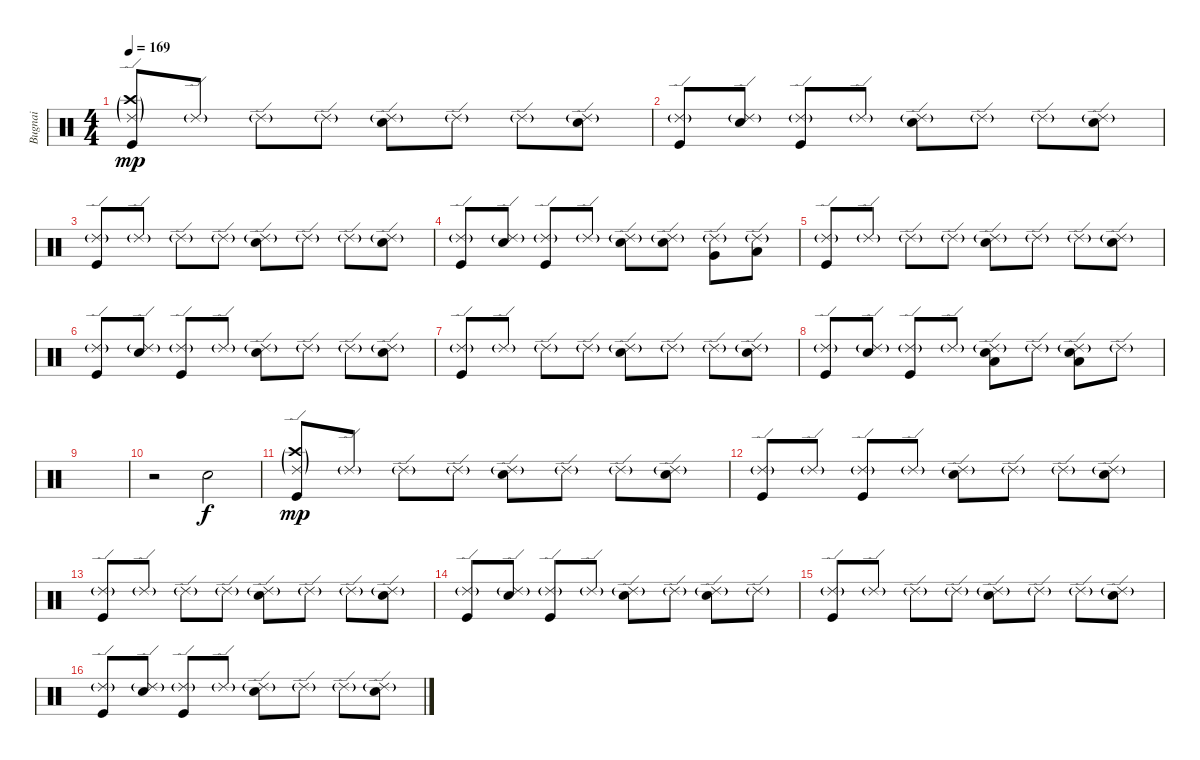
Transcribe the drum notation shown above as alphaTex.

\track ("Bugnai" "Bugnai") {instrument percussion}
\staff {score}
\articulation defaults
\ts (4 4)
\tempo 169
\clef neutral
\ks c
("Ride (edge) 2"{g} "Crash high (hit)"{g} "Kick (hit)").8{dy mp} "Ride (edge) 2"{g}.8 "Ride (edge) 2"{g}.8 "Ride (edge) 2"{g}.8 ("Ride (edge) 2"{g} "Snare (hit) 2").8 "Ride (edge) 2"{g}.8 "Ride (edge) 2"{g}.8 ("Ride (edge) 2"{g} "Snare (hit) 2").8 |
("Ride (edge) 2"{g} "Kick (hit)").8 ("Ride (edge) 2"{g} "Snare (hit) 2").8 ("Ride (edge) 2"{g} "Kick (hit)").8 "Ride (edge) 2"{g}.8 ("Ride (edge) 2"{g} "Snare (hit) 2").8 "Ride (edge) 2"{g}.8 "Ride (edge) 2"{g}.8 ("Ride (edge) 2"{g} "Snare (hit) 2").8 |
("Ride (edge) 2"{g} "Kick (hit)").8 "Ride (edge) 2"{g}.8 "Ride (edge) 2"{g}.8 "Ride (edge) 2"{g}.8 ("Ride (edge) 2"{g} "Snare (hit) 2").8 "Ride (edge) 2"{g}.8 "Ride (edge) 2"{g}.8 ("Ride (edge) 2"{g} "Snare (hit) 2").8 |
("Ride (edge) 2"{g} "Kick (hit)").8 ("Ride (edge) 2"{g} "Snare (hit) 2").8 ("Ride (edge) 2"{g} "Kick (hit)").8 "Ride (edge) 2"{g}.8 ("Ride (edge) 2"{g} "Snare (hit) 2").8 ("Ride (edge) 2"{g} "Snare (hit) 2").8 ("Ride (edge) 2"{g} "Very Low Tom (hit)").8 ("Ride (edge) 2"{g} "Low Floor Tom (hit)").8 |
("Ride (edge) 2"{g} "Kick (hit)").8 "Ride (edge) 2"{g}.8 "Ride (edge) 2"{g}.8 "Ride (edge) 2"{g}.8 ("Ride (edge) 2"{g} "Snare (hit) 2").8 "Ride (edge) 2"{g}.8 "Ride (edge) 2"{g}.8 ("Ride (edge) 2"{g} "Snare (hit) 2").8 |
("Ride (edge) 2"{g} "Kick (hit)").8 ("Ride (edge) 2"{g} "Snare (hit) 2").8 ("Ride (edge) 2"{g} "Kick (hit)").8 "Ride (edge) 2"{g}.8 ("Ride (edge) 2"{g} "Snare (hit) 2").8 "Ride (edge) 2"{g}.8 "Ride (edge) 2"{g}.8 ("Ride (edge) 2"{g} "Snare (hit) 2").8 |
("Ride (edge) 2"{g} "Kick (hit)").8 "Ride (edge) 2"{g}.8 "Ride (edge) 2"{g}.8 "Ride (edge) 2"{g}.8 ("Ride (edge) 2"{g} "Snare (hit) 2").8 "Ride (edge) 2"{g}.8 "Ride (edge) 2"{g}.8 ("Ride (edge) 2"{g} "Snare (hit) 2").8 |
("Ride (edge) 2"{g} "Kick (hit)").8 ("Ride (edge) 2"{g} "Snare (hit) 2").8 ("Ride (edge) 2"{g} "Kick (hit)").8 "Ride (edge) 2"{g}.8 ("Ride (edge) 2"{g} "Snare (hit) 2" "Low Tom (hit)").8 "Ride (edge) 2"{g}.8 ("Ride (edge) 2"{g} "Snare (hit) 2" "Low Tom (hit)").8 "Ride (edge) 2"{g}.8 |
|
r.2 "Snare (hit) 2".2{dy f} |
("Ride (edge) 2"{g} "Crash high (hit)"{g} "Kick (hit)").8{dy mp} "Ride (edge) 2"{g}.8 "Ride (edge) 2"{g}.8 "Ride (edge) 2"{g}.8 ("Ride (edge) 2"{g} "Snare (hit) 2").8 "Ride (edge) 2"{g}.8 "Ride (edge) 2"{g}.8 ("Ride (edge) 2"{g} "Snare (hit) 2").8 |
("Ride (edge) 2"{g} "Kick (hit)").8 "Ride (edge) 2"{g}.8 ("Ride (edge) 2"{g} "Kick (hit)").8 "Ride (edge) 2"{g}.8 ("Ride (edge) 2"{g} "Snare (hit) 2").8 "Ride (edge) 2"{g}.8 "Ride (edge) 2"{g}.8 ("Ride (edge) 2"{g} "Snare (hit) 2").8 |
("Ride (edge) 2"{g} "Kick (hit)").8 "Ride (edge) 2"{g}.8 "Ride (edge) 2"{g}.8 "Ride (edge) 2"{g}.8 ("Ride (edge) 2"{g} "Snare (hit) 2").8 "Ride (edge) 2"{g}.8 "Ride (edge) 2"{g}.8 ("Ride (edge) 2"{g} "Snare (hit) 2").8 |
("Ride (edge) 2"{g} "Kick (hit)").8 ("Ride (edge) 2"{g} "Snare (hit) 2").8 ("Ride (edge) 2"{g} "Kick (hit)").8 "Ride (edge) 2"{g}.8 ("Ride (edge) 2"{g} "Snare (hit) 2").8 "Ride (edge) 2"{g}.8 ("Ride (edge) 2"{g} "Snare (hit) 2").8 "Ride (edge) 2"{g}.8 |
("Ride (edge) 2"{g} "Kick (hit)").8 "Ride (edge) 2"{g}.8 "Ride (edge) 2"{g}.8 "Ride (edge) 2"{g}.8 ("Ride (edge) 2"{g} "Snare (hit) 2").8 "Ride (edge) 2"{g}.8 "Ride (edge) 2"{g}.8 ("Ride (edge) 2"{g} "Snare (hit) 2").8 |
("Ride (edge) 2"{g} "Kick (hit)").8 ("Ride (edge) 2"{g} "Snare (hit) 2").8 ("Ride (edge) 2"{g} "Kick (hit)").8 "Ride (edge) 2"{g}.8 ("Ride (edge) 2"{g} "Snare (hit) 2").8 "Ride (edge) 2"{g}.8 "Ride (edge) 2"{g}.8 ("Ride (edge) 2"{g} "Snare (hit) 2").8
